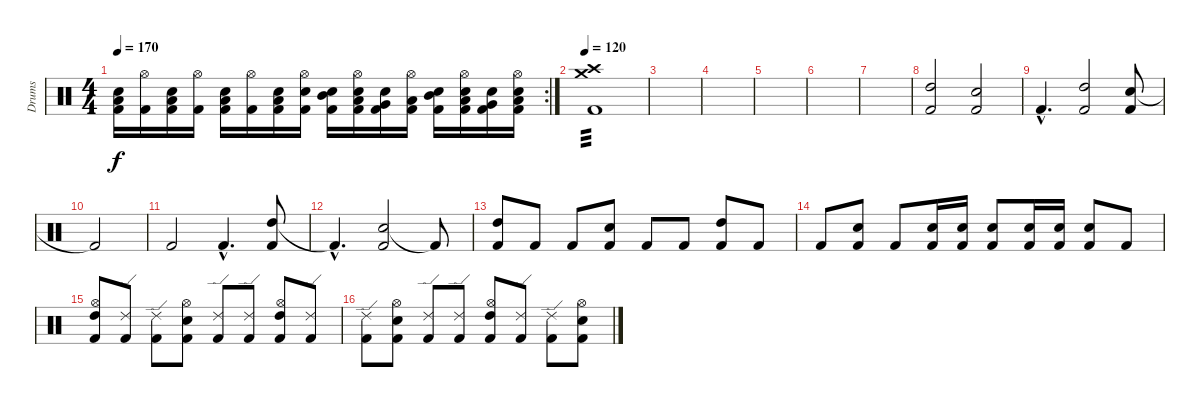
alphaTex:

\track ("Drums" "Drums") {instrument percussion}
\staff {score}
\articulation defaults
\rc 2
\ts (4 4)
\tempo 170
\clef neutral
\ks c
("Low Tom (hit)" "Snare (hit) 2" "Kick (hit) 2").16{dy f} ("Hi-Hat (open)" "Kick (hit) 2").16 ("Low Tom (hit)" "Snare (hit) 2" "Kick (hit) 2").16 ("Hi-Hat (open)" "Kick (hit) 2").16 ("Low Tom (hit)" "Snare (hit) 2" "Kick (hit) 2").16 ("Hi-Hat (open)" "Kick (hit) 2").16 ("Low Tom (hit)" "Snare (hit) 2" "Kick (hit) 2").16 ("Hi-Hat (open)" "Snare (hit) 2" "Kick (hit) 2").16 ("Mid Tom (hit)" "Snare (hit) 2" "Kick (hit) 2").16 ("Low Tom (hit)" "Hi-Hat (open)" "Snare (hit) 2" "Kick (hit) 2").16 ("Very Low Tom (hit)" "Snare (hit) 2" "Kick (hit) 2").16 ("Low Tom (hit)" "Hi-Hat (open)" "Kick (hit) 2").16 ("Mid Tom (hit)" "Snare (hit) 2" "Kick (hit) 2").16 ("Low Tom (hit)" "Hi-Hat (open)" "Snare (hit) 2" "Kick (hit) 2").16 ("Very Low Tom (hit)" "Snare (hit) 2" "Kick (hit) 2").16 ("Low Tom (hit)" "Hi-Hat (open)" "Snare (hit) 2" "Kick (hit) 2").16 |
\tempo 120
("Crash high (hit)" "Crash medium (hit)" "Kick (hit) 2").1{tp 3} |
|
|
|
|
|
("High Tom (hit)" "Kick (hit) 2").2 ("Snare (hit) 2" "Kick (hit) 2").2 |
"Kick (hit) 2"{hac}.4{d} ("High Tom (hit)" "Kick (hit) 2").2 ("Snare (hit) 2" "Kick (hit) 2").8 |
"Kick (hit) 2"{t}.2 |
"Kick (hit) 2".2 "Kick (hit) 2"{hac}.4{d} ("High Tom (hit)" "Kick (hit) 2").8 |
"Kick (hit) 2"{hac t}.4{d} ("Snare (hit) 2" "Kick (hit) 2").2 "Kick (hit) 2"{t}.8 |
("High Tom (hit)" "Kick (hit) 2").8 "Kick (hit) 2".8 "Kick (hit) 2".8 ("Snare (hit) 2" "Kick (hit) 2").8 "Kick (hit) 2".8 "Kick (hit) 2".8 ("High Tom (hit)" "Kick (hit) 2").8 "Kick (hit) 2".8 |
"Kick (hit) 2".8 ("Snare (hit) 2" "Kick (hit) 2").8 "Kick (hit) 2".8 ("Snare (hit) 2" "Kick (hit) 2").16 ("Snare (hit) 2" "Kick (hit) 2").16 ("Snare (hit) 2" "Kick (hit) 2").8 ("Snare (hit) 2" "Kick (hit) 2").16 ("Snare (hit) 2" "Kick (hit) 2").16 ("Snare (hit) 2" "Kick (hit) 2").8 "Kick (hit) 2".8 |
("Hi-Hat (open)" "High Tom (hit)" "Kick (hit) 2").8 ("Ride (edge) 2" "Kick (hit) 2").8 ("Ride (edge) 2" "Kick (hit) 2").8 ("Hi-Hat (open)" "Snare (hit) 2" "Kick (hit) 2").8 ("Ride (edge) 2" "Kick (hit) 2").8 ("Ride (edge) 2" "Kick (hit) 2").8 ("Hi-Hat (open)" "High Tom (hit)" "Kick (hit) 2").8 ("Ride (edge) 2" "Kick (hit) 2").8 |
("Ride (edge) 2" "Kick (hit) 2").8 ("Hi-Hat (open)" "Snare (hit) 2" "Kick (hit) 2").8 ("Ride (edge) 2" "Kick (hit) 2").8 ("Ride (edge) 2" "Kick (hit) 2").8 ("Hi-Hat (open)" "High Tom (hit)" "Kick (hit) 2").8 ("Ride (edge) 2" "Kick (hit) 2").8 ("Ride (edge) 2" "Kick (hit) 2").8 ("Hi-Hat (open)" "Snare (hit) 2" "Kick (hit) 2").8
